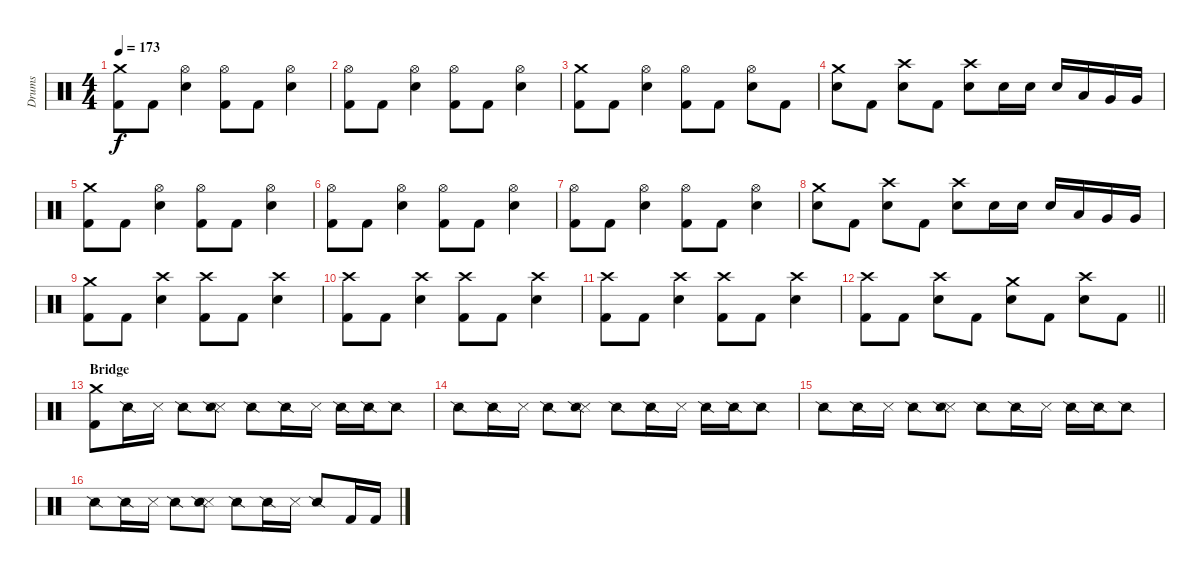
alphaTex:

\track ("Drums" "Drums") {instrument percussion}
\staff {score}
\articulation defaults
\ts (4 4)
\tempo 173
\clef neutral
\ks c
("Crash medium (hit)" "Kick (hit) 2").8{dy f} "Kick (hit) 2".8 ("Hi-Hat (open)" "Electric Snare (hit)").4 ("Hi-Hat (open)" "Kick (hit) 2").8 "Kick (hit) 2".8 ("Hi-Hat (open)" "Electric Snare (hit)").4 |
("Hi-Hat (open)" "Kick (hit) 2").8 "Kick (hit) 2".8 ("Hi-Hat (open)" "Electric Snare (hit)").4 ("Hi-Hat (open)" "Kick (hit) 2").8 "Kick (hit) 2".8 ("Hi-Hat (open)" "Electric Snare (hit)").4 |
("Crash medium (hit)" "Kick (hit) 2").8 "Kick (hit) 2".8 ("Hi-Hat (open)" "Electric Snare (hit)").4 ("Hi-Hat (open)" "Kick (hit) 2").8 "Kick (hit) 2".8 ("Hi-Hat (open)" "Electric Snare (hit)").8 "Kick (hit) 2".8 |
("Crash medium (hit)" "Electric Snare (hit)").8 "Kick (hit) 2".8 ("Crash high (hit)" "Electric Snare (hit)").8 "Kick (hit) 2".8 ("Crash high (hit)" "Electric Snare (hit)").8 "Electric Snare (hit)".16 "Electric Snare (hit)".16 "Electric Snare (hit)".16 "Low Tom (hit)".16 "Very Low Tom (hit)".16 "Very Low Tom (hit)".16 |
("Crash medium (hit)" "Kick (hit) 2").8 "Kick (hit) 2".8 ("Hi-Hat (open)" "Electric Snare (hit)").4 ("Hi-Hat (open)" "Kick (hit) 2").8 "Kick (hit) 2".8 ("Hi-Hat (open)" "Electric Snare (hit)").4 |
("Hi-Hat (open)" "Kick (hit) 2").8 "Kick (hit) 2".8 ("Hi-Hat (open)" "Electric Snare (hit)").4 ("Hi-Hat (open)" "Kick (hit) 2").8 "Kick (hit) 2".8 ("Hi-Hat (open)" "Electric Snare (hit)").4 |
("Hi-Hat (open)" "Kick (hit) 2").8 "Kick (hit) 2".8 ("Hi-Hat (open)" "Electric Snare (hit)").4 ("Hi-Hat (open)" "Kick (hit) 2").8 "Kick (hit) 2".8 ("Hi-Hat (open)" "Electric Snare (hit)").4 |
("Crash medium (hit)" "Electric Snare (hit)").8 "Kick (hit) 2".8 ("Crash high (hit)" "Electric Snare (hit)").8 "Kick (hit) 2".8 ("Crash high (hit)" "Electric Snare (hit)").8 "Electric Snare (hit)".16 "Electric Snare (hit)".16 "Electric Snare (hit)".16 "Low Tom (hit)".16 "Very Low Tom (hit)".16 "Very Low Tom (hit)".16 |
("Crash medium (hit)" "Kick (hit) 2").8 "Kick (hit) 2".8 ("Crash high (hit)" "Electric Snare (hit)").4 ("Crash high (hit)" "Kick (hit) 2").8 "Kick (hit) 2".8 ("Crash high (hit)" "Electric Snare (hit)").4 |
("Crash high (hit)" "Kick (hit) 2").8 "Kick (hit) 2".8 ("Crash high (hit)" "Electric Snare (hit)").4 ("Crash high (hit)" "Kick (hit) 2").8 "Kick (hit) 2".8 ("Crash high (hit)" "Electric Snare (hit)").4 |
("Crash high (hit)" "Kick (hit) 2").8 "Kick (hit) 2".8 ("Crash high (hit)" "Electric Snare (hit)").4 ("Crash high (hit)" "Kick (hit) 2").8 "Kick (hit) 2".8 ("Crash high (hit)" "Electric Snare (hit)").4 |
\barLineRight lightlight
("Crash high (hit)" "Kick (hit) 2").8 "Kick (hit) 2".8 ("Crash high (hit)" "Electric Snare (hit)").8 "Kick (hit) 2".8 ("Crash medium (hit)" "Electric Snare (hit)").8 "Kick (hit) 2".8 ("Crash high (hit)" "Electric Snare (hit)").8 "Kick (hit) 2".8 |
\section ("" "Bridge")
("Crash medium (hit)" "Kick (hit) 2").8 "Snare (side stick) 2".16 "Metronome (hit)".16 "Snare (side stick) 2".8 ("Snare (side stick) 3" "Snare (side stick) 2").8 "Snare (side stick) 2".8 "Snare (side stick) 2".16 "Metronome (hit)".16 "Snare (side stick) 2".16 "Snare (side stick) 2".16 "Snare (side stick) 2".8 |
"Snare (side stick) 2".8 "Snare (side stick) 2".16 "Metronome (hit)".16 "Snare (side stick) 2".8 ("Snare (side stick) 3" "Snare (side stick) 2").8 "Snare (side stick) 2".8 "Snare (side stick) 2".16 "Metronome (hit)".16 "Snare (side stick) 2".16 "Snare (side stick) 2".16 "Snare (side stick) 2".8 |
"Snare (side stick) 2".8 "Snare (side stick) 2".16 "Metronome (hit)".16 "Snare (side stick) 2".8 ("Snare (side stick) 3" "Snare (side stick) 2").8 "Snare (side stick) 2".8 "Snare (side stick) 2".16 "Metronome (hit)".16 "Snare (side stick) 2".16 "Snare (side stick) 2".16 "Snare (side stick) 2".8 |
"Snare (side stick) 2".8 "Snare (side stick) 2".16 "Metronome (hit)".16 "Snare (side stick) 2".8 ("Snare (side stick) 3" "Snare (side stick) 2").8 "Snare (side stick) 2".8 "Snare (side stick) 2".16 "Metronome (hit)".16 "Snare (side stick) 2".8 "Kick (hit) 2".16 "Kick (hit) 2".16
